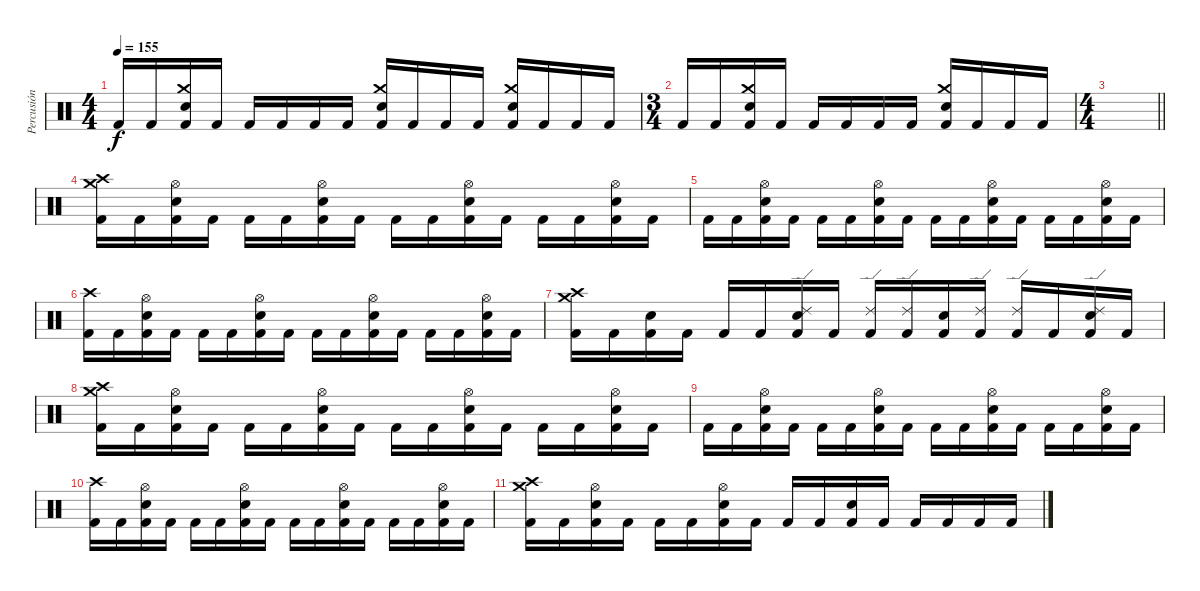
\track ("Percusión" "Percusión") {instrument percussion}
\staff {score}
\articulation defaults
\ts (4 4)
\tempo 155
\clef neutral
\ks c "Kick (hit) 2".16{dy f} "Kick (hit) 2".16
("Crash medium (hit)" "Electric Snare (hit)" "Kick (hit) 2").16 "Kick (hit) 2".16 "Kick (hit) 2".16 "Kick (hit) 2".16 "Kick (hit) 2".16 "Kick (hit) 2".16 ("Crash medium (hit)" "Electric Snare (hit)" "Kick (hit) 2").16 "Kick (hit) 2".16 "Kick (hit) 2".16 "Kick (hit) 2".16 ("Crash medium (hit)" "Electric Snare (hit)" "Kick (hit) 2").16 "Kick (hit) 2".16 "Kick (hit) 2".16 "Kick (hit) 2".16 |
\ts (3 4)
"Kick (hit) 2".16 "Kick (hit) 2".16 ("Crash medium (hit)" "Electric Snare (hit)" "Kick (hit) 2").16 "Kick (hit) 2".16 "Kick (hit) 2".16 "Kick (hit) 2".16 "Kick (hit) 2".16 "Kick (hit) 2".16 ("Crash medium (hit)" "Electric Snare (hit)" "Kick (hit) 2").16 "Kick (hit) 2".16 "Kick (hit) 2".16 "Kick (hit) 2".16 |
\ts (4 4)
\barLineRight lightlight
|
("Crash high (hit)" "Crash medium (hit)" "Kick (hit) 2").16 "Kick (hit) 2".16 ("Hi-Hat (open)" "Electric Snare (hit)" "Kick (hit) 2").16 "Kick (hit) 2".16 "Kick (hit) 2".16 "Kick (hit) 2".16 ("Hi-Hat (open)" "Electric Snare (hit)" "Kick (hit) 2").16 "Kick (hit) 2".16 "Kick (hit) 2".16 "Kick (hit) 2".16 ("Hi-Hat (open)" "Electric Snare (hit)" "Kick (hit) 2").16 "Kick (hit) 2".16 "Kick (hit) 2".16 "Kick (hit) 2".16 ("Hi-Hat (open)" "Electric Snare (hit)" "Kick (hit) 2").16 "Kick (hit) 2".16 |
"Kick (hit) 2".16 "Kick (hit) 2".16 ("Hi-Hat (open)" "Electric Snare (hit)" "Kick (hit) 2").16 "Kick (hit) 2".16 "Kick (hit) 2".16 "Kick (hit) 2".16 ("Hi-Hat (open)" "Electric Snare (hit)" "Kick (hit) 2").16 "Kick (hit) 2".16 "Kick (hit) 2".16 "Kick (hit) 2".16 ("Hi-Hat (open)" "Electric Snare (hit)" "Kick (hit) 2").16 "Kick (hit) 2".16 "Kick (hit) 2".16 "Kick (hit) 2".16 ("Hi-Hat (open)" "Electric Snare (hit)" "Kick (hit) 2").16 "Kick (hit) 2".16 |
("Crash high (hit)" "Kick (hit) 2").16 "Kick (hit) 2".16 ("Hi-Hat (open)" "Electric Snare (hit)" "Kick (hit) 2").16 "Kick (hit) 2".16 "Kick (hit) 2".16 "Kick (hit) 2".16 ("Hi-Hat (open)" "Electric Snare (hit)" "Kick (hit) 2").16 "Kick (hit) 2".16 "Kick (hit) 2".16 "Kick (hit) 2".16 ("Hi-Hat (open)" "Electric Snare (hit)" "Kick (hit) 2").16 "Kick (hit) 2".16 "Kick (hit) 2".16 "Kick (hit) 2".16 ("Hi-Hat (open)" "Electric Snare (hit)" "Kick (hit) 2").16 "Kick (hit) 2".16 |
("Crash medium (hit)" "Crash high (hit)" "Kick (hit) 2").16 "Kick (hit) 2".16 ("Electric Snare (hit)" "Kick (hit) 2").16 "Kick (hit) 2".16 "Kick (hit) 2".16 "Kick (hit) 2".16 ("Ride (edge) 2" "Electric Snare (hit)" "Kick (hit) 2").16 "Kick (hit) 2".16 ("Ride (edge) 2" "Kick (hit) 2").16 ("Ride (edge) 2" "Kick (hit) 2").16 ("Electric Snare (hit)" "Kick (hit) 2").16 ("Ride (edge) 2" "Kick (hit) 2").16 ("Ride (edge) 2" "Kick (hit) 2").16 "Kick (hit) 2".16 ("Ride (edge) 2" "Electric Snare (hit)" "Kick (hit) 2").16 "Kick (hit) 2".16 |
("Crash high (hit)" "Crash medium (hit)" "Kick (hit) 2").16 "Kick (hit) 2".16 ("Hi-Hat (open)" "Electric Snare (hit)" "Kick (hit) 2").16 "Kick (hit) 2".16 "Kick (hit) 2".16 "Kick (hit) 2".16 ("Hi-Hat (open)" "Electric Snare (hit)" "Kick (hit) 2").16 "Kick (hit) 2".16 "Kick (hit) 2".16 "Kick (hit) 2".16 ("Hi-Hat (open)" "Electric Snare (hit)" "Kick (hit) 2").16 "Kick (hit) 2".16 "Kick (hit) 2".16 "Kick (hit) 2".16 ("Hi-Hat (open)" "Electric Snare (hit)" "Kick (hit) 2").16 "Kick (hit) 2".16 |
"Kick (hit) 2".16 "Kick (hit) 2".16 ("Hi-Hat (open)" "Electric Snare (hit)" "Kick (hit) 2").16 "Kick (hit) 2".16 "Kick (hit) 2".16 "Kick (hit) 2".16 ("Hi-Hat (open)" "Electric Snare (hit)" "Kick (hit) 2").16 "Kick (hit) 2".16 "Kick (hit) 2".16 "Kick (hit) 2".16 ("Hi-Hat (open)" "Electric Snare (hit)" "Kick (hit) 2").16 "Kick (hit) 2".16 "Kick (hit) 2".16 "Kick (hit) 2".16 ("Hi-Hat (open)" "Electric Snare (hit)" "Kick (hit) 2").16 "Kick (hit) 2".16 |
("Crash high (hit)" "Kick (hit) 2").16 "Kick (hit) 2".16 ("Hi-Hat (open)" "Electric Snare (hit)" "Kick (hit) 2").16 "Kick (hit) 2".16 "Kick (hit) 2".16 "Kick (hit) 2".16 ("Hi-Hat (open)" "Electric Snare (hit)" "Kick (hit) 2").16 "Kick (hit) 2".16 "Kick (hit) 2".16 "Kick (hit) 2".16 ("Hi-Hat (open)" "Electric Snare (hit)" "Kick (hit) 2").16 "Kick (hit) 2".16 "Kick (hit) 2".16 "Kick (hit) 2".16 ("Hi-Hat (open)" "Electric Snare (hit)" "Kick (hit) 2").16 "Kick (hit) 2".16 |
("Crash high (hit)" "Crash medium (hit)" "Kick (hit) 2").16 "Kick (hit) 2".16 ("Hi-Hat (open)" "Electric Snare (hit)" "Kick (hit) 2").16 "Kick (hit) 2".16 "Kick (hit) 2".16 "Kick (hit) 2".16 ("Hi-Hat (open)" "Electric Snare (hit)" "Kick (hit) 2").16 "Kick (hit) 2".16 "Kick (hit) 2".16 "Kick (hit) 2".16 ("Electric Snare (hit)" "Kick (hit) 2").16 "Kick (hit) 2".16 "Kick (hit) 2".16 "Kick (hit) 2".16 "Kick (hit) 2".16 "Kick (hit) 2".16
